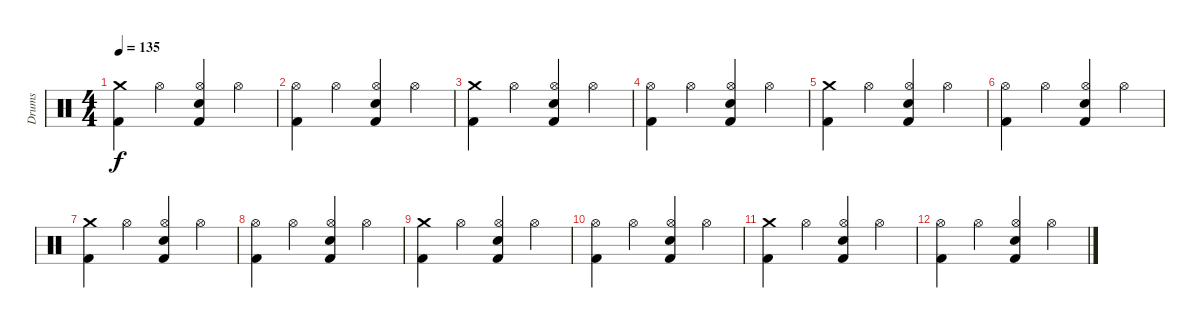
\track ("Drums" "Drums") {instrument percussion}
\staff {score}
\articulation defaults
\ts (4 4)
\tempo 135
\clef neutral
\ks c
("Crash medium (hit)" "Kick (hit) 2").4{dy f} "Hi-Hat (open)".4 ("Hi-Hat (open)" "Kick (hit) 2" "Snare (hit) 2").4 "Hi-Hat (open)".4 |
("Hi-Hat (open)" "Kick (hit) 2").4 "Hi-Hat (open)".4 ("Hi-Hat (open)" "Kick (hit) 2" "Snare (hit) 2").4 "Hi-Hat (open)".4 |
("Crash medium (hit)" "Kick (hit) 2").4 "Hi-Hat (open)".4 ("Hi-Hat (open)" "Kick (hit) 2" "Snare (hit) 2").4 "Hi-Hat (open)".4 |
("Hi-Hat (open)" "Kick (hit) 2").4 "Hi-Hat (open)".4 ("Hi-Hat (open)" "Kick (hit) 2" "Snare (hit) 2").4 "Hi-Hat (open)".4 |
("Crash medium (hit)" "Kick (hit) 2").4 "Hi-Hat (open)".4 ("Hi-Hat (open)" "Kick (hit) 2" "Snare (hit) 2").4 "Hi-Hat (open)".4 |
("Hi-Hat (open)" "Kick (hit) 2").4 "Hi-Hat (open)".4 ("Hi-Hat (open)" "Kick (hit) 2" "Snare (hit) 2").4 "Hi-Hat (open)".4 |
("Crash medium (hit)" "Kick (hit) 2").4 "Hi-Hat (open)".4 ("Hi-Hat (open)" "Kick (hit) 2" "Snare (hit) 2").4 "Hi-Hat (open)".4 |
("Hi-Hat (open)" "Kick (hit) 2").4 "Hi-Hat (open)".4 ("Hi-Hat (open)" "Kick (hit) 2" "Snare (hit) 2").4 "Hi-Hat (open)".4 |
("Crash medium (hit)" "Kick (hit) 2").4 "Hi-Hat (open)".4 ("Hi-Hat (open)" "Kick (hit) 2" "Snare (hit) 2").4 "Hi-Hat (open)".4 |
("Hi-Hat (open)" "Kick (hit) 2").4 "Hi-Hat (open)".4 ("Hi-Hat (open)" "Kick (hit) 2" "Snare (hit) 2").4 "Hi-Hat (open)".4 |
("Crash medium (hit)" "Kick (hit) 2").4 "Hi-Hat (open)".4 ("Hi-Hat (open)" "Kick (hit) 2" "Snare (hit) 2").4 "Hi-Hat (open)".4 |
("Hi-Hat (open)" "Kick (hit) 2").4 "Hi-Hat (open)".4 ("Hi-Hat (open)" "Kick (hit) 2" "Snare (hit) 2").4 "Hi-Hat (open)".4
